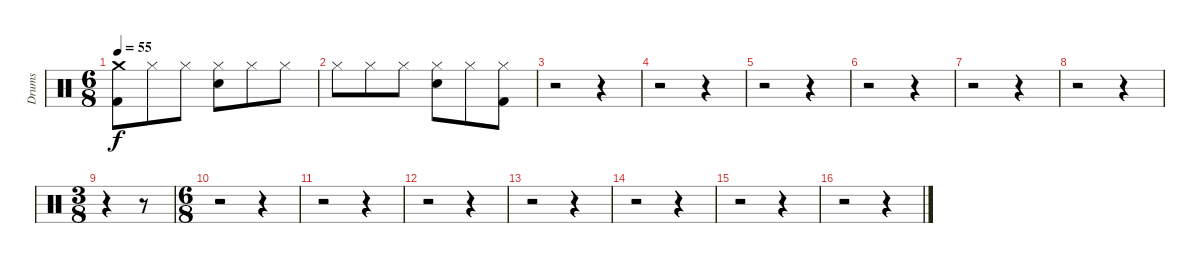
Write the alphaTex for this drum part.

\track ("Drums" "Drums") {instrument percussion}
\staff {score}
\articulation defaults
\ts (6 8)
\tempo 55
\clef neutral
\ks c
("Crash medium (hit)" "Kick (hit) 2").8{dy f} "Hi-Hat (closed)".8 "Hi-Hat (closed)".8 ("Hi-Hat (closed)" "Snare (hit) 2").8 "Hi-Hat (closed)".8 "Hi-Hat (closed)".8 |
"Hi-Hat (closed)".8 "Hi-Hat (closed)".8 "Hi-Hat (closed)".8 ("Hi-Hat (closed)" "Snare (hit) 2").8 "Hi-Hat (closed)".8 ("Hi-Hat (closed)" "Kick (hit) 2").8 |
r.2 r.4 |
r.2 r.4 |
r.2 r.4 |
r.2 r.4 |
r.2 r.4 |
r.2 r.4 |
\ts (3 8)
r.4 r.8 |
\ts (6 8)
r.2 r.4 |
r.2 r.4 |
r.2 r.4 |
r.2 r.4 |
r.2 r.4 |
r.2 r.4 |
r.2 r.4
